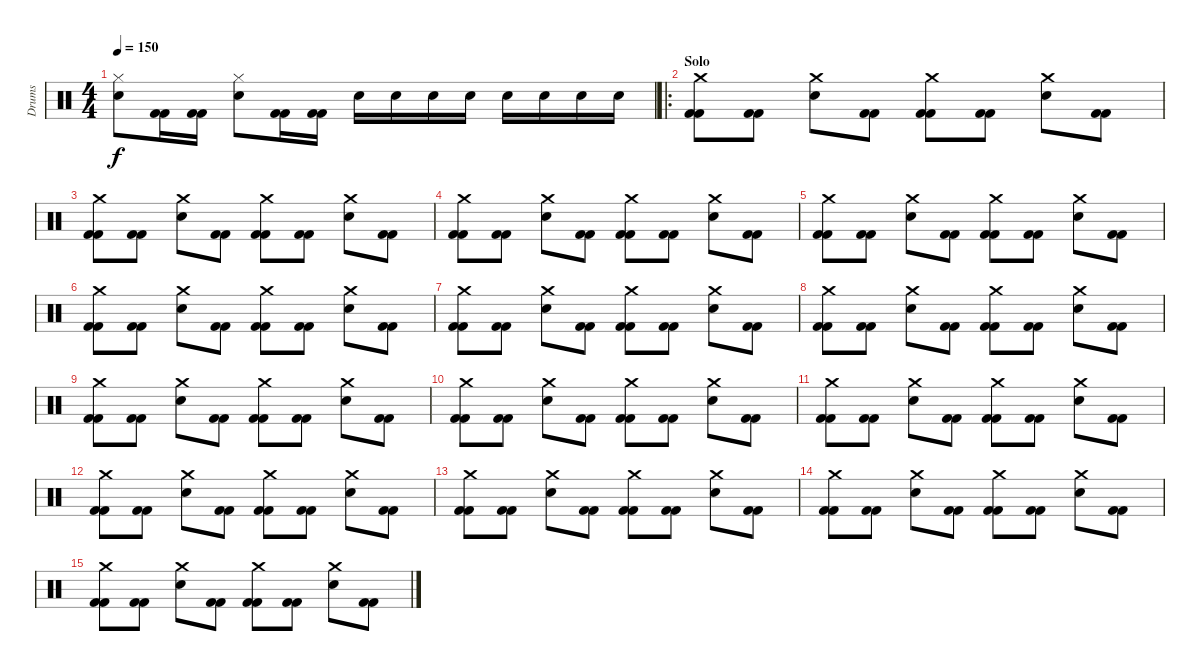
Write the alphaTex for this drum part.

\track ("Drums" "Drums") {instrument percussion}
\staff {score}
\articulation defaults
\ts (4 4)
\tempo 150
\clef neutral
\ks c
("Hi-Hat (closed)" "Electric Snare (hit)").8{dy f} ("Kick (hit) 2" "Kick (hit) 2").16 ("Kick (hit) 2" "Kick (hit) 2").16 ("Electric Snare (hit)" "Hi-Hat (closed)").8 ("Kick (hit) 2" "Kick (hit) 2").16 ("Kick (hit) 2" "Kick (hit) 2").16 "Electric Snare (hit)".16 "Electric Snare (hit)".16 "Electric Snare (hit)".16 "Electric Snare (hit)".16 "Electric Snare (hit)".16 "Electric Snare (hit)".16 "Electric Snare (hit)".16 "Electric Snare (hit)".16 |
\ro
\section ("" "Solo")
("Crash medium (hit)" "Kick (hit) 2" "Kick (hit) 2").8 ("Kick (hit) 2" "Kick (hit) 2").8 ("Electric Snare (hit)" "Crash medium (hit)").8 ("Kick (hit) 2" "Kick (hit) 2").8 ("Kick (hit) 2" "Crash medium (hit)" "Kick (hit) 2").8 ("Kick (hit) 2" "Kick (hit) 2").8 ("Crash medium (hit)" "Electric Snare (hit)").8 ("Kick (hit) 2" "Kick (hit) 2").8 |
("Crash medium (hit)" "Kick (hit) 2" "Kick (hit) 2").8 ("Kick (hit) 2" "Kick (hit) 2").8 ("Electric Snare (hit)" "Crash medium (hit)").8 ("Kick (hit) 2" "Kick (hit) 2").8 ("Kick (hit) 2" "Crash medium (hit)" "Kick (hit) 2").8 ("Kick (hit) 2" "Kick (hit) 2").8 ("Crash medium (hit)" "Electric Snare (hit)").8 ("Kick (hit) 2" "Kick (hit) 2").8 |
("Crash medium (hit)" "Kick (hit) 2" "Kick (hit) 2").8 ("Kick (hit) 2" "Kick (hit) 2").8 ("Electric Snare (hit)" "Crash medium (hit)").8 ("Kick (hit) 2" "Kick (hit) 2").8 ("Kick (hit) 2" "Crash medium (hit)" "Kick (hit) 2").8 ("Kick (hit) 2" "Kick (hit) 2").8 ("Crash medium (hit)" "Electric Snare (hit)").8 ("Kick (hit) 2" "Kick (hit) 2").8 |
("Crash medium (hit)" "Kick (hit) 2" "Kick (hit) 2").8 ("Kick (hit) 2" "Kick (hit) 2").8 ("Electric Snare (hit)" "Crash medium (hit)").8 ("Kick (hit) 2" "Kick (hit) 2").8 ("Kick (hit) 2" "Crash medium (hit)" "Kick (hit) 2").8 ("Kick (hit) 2" "Kick (hit) 2").8 ("Crash medium (hit)" "Electric Snare (hit)").8 ("Kick (hit) 2" "Kick (hit) 2").8 |
("Crash medium (hit)" "Kick (hit) 2" "Kick (hit) 2").8 ("Kick (hit) 2" "Kick (hit) 2").8 ("Electric Snare (hit)" "Crash medium (hit)").8 ("Kick (hit) 2" "Kick (hit) 2").8 ("Kick (hit) 2" "Crash medium (hit)" "Kick (hit) 2").8 ("Kick (hit) 2" "Kick (hit) 2").8 ("Crash medium (hit)" "Electric Snare (hit)").8 ("Kick (hit) 2" "Kick (hit) 2").8 |
("Crash medium (hit)" "Kick (hit) 2" "Kick (hit) 2").8 ("Kick (hit) 2" "Kick (hit) 2").8 ("Electric Snare (hit)" "Crash medium (hit)").8 ("Kick (hit) 2" "Kick (hit) 2").8 ("Kick (hit) 2" "Crash medium (hit)" "Kick (hit) 2").8 ("Kick (hit) 2" "Kick (hit) 2").8 ("Crash medium (hit)" "Electric Snare (hit)").8 ("Kick (hit) 2" "Kick (hit) 2").8 |
("Crash medium (hit)" "Kick (hit) 2" "Kick (hit) 2").8 ("Kick (hit) 2" "Kick (hit) 2").8 ("Electric Snare (hit)" "Crash medium (hit)").8 ("Kick (hit) 2" "Kick (hit) 2").8 ("Kick (hit) 2" "Crash medium (hit)" "Kick (hit) 2").8 ("Kick (hit) 2" "Kick (hit) 2").8 ("Crash medium (hit)" "Electric Snare (hit)").8 ("Kick (hit) 2" "Kick (hit) 2").8 |
("Crash medium (hit)" "Kick (hit) 2" "Kick (hit) 2").8 ("Kick (hit) 2" "Kick (hit) 2").8 ("Electric Snare (hit)" "Crash medium (hit)").8 ("Kick (hit) 2" "Kick (hit) 2").8 ("Kick (hit) 2" "Crash medium (hit)" "Kick (hit) 2").8 ("Kick (hit) 2" "Kick (hit) 2").8 ("Crash medium (hit)" "Electric Snare (hit)").8 ("Kick (hit) 2" "Kick (hit) 2").8 |
("Crash medium (hit)" "Kick (hit) 2" "Kick (hit) 2").8 ("Kick (hit) 2" "Kick (hit) 2").8 ("Electric Snare (hit)" "Crash medium (hit)").8 ("Kick (hit) 2" "Kick (hit) 2").8 ("Kick (hit) 2" "Crash medium (hit)" "Kick (hit) 2").8 ("Kick (hit) 2" "Kick (hit) 2").8 ("Crash medium (hit)" "Electric Snare (hit)").8 ("Kick (hit) 2" "Kick (hit) 2").8 |
("Crash medium (hit)" "Kick (hit) 2" "Kick (hit) 2").8 ("Kick (hit) 2" "Kick (hit) 2").8 ("Electric Snare (hit)" "Crash medium (hit)").8 ("Kick (hit) 2" "Kick (hit) 2").8 ("Kick (hit) 2" "Crash medium (hit)" "Kick (hit) 2").8 ("Kick (hit) 2" "Kick (hit) 2").8 ("Crash medium (hit)" "Electric Snare (hit)").8 ("Kick (hit) 2" "Kick (hit) 2").8 |
("Crash medium (hit)" "Kick (hit) 2" "Kick (hit) 2").8 ("Kick (hit) 2" "Kick (hit) 2").8 ("Electric Snare (hit)" "Crash medium (hit)").8 ("Kick (hit) 2" "Kick (hit) 2").8 ("Kick (hit) 2" "Crash medium (hit)" "Kick (hit) 2").8 ("Kick (hit) 2" "Kick (hit) 2").8 ("Crash medium (hit)" "Electric Snare (hit)").8 ("Kick (hit) 2" "Kick (hit) 2").8 |
("Crash medium (hit)" "Kick (hit) 2" "Kick (hit) 2").8 ("Kick (hit) 2" "Kick (hit) 2").8 ("Electric Snare (hit)" "Crash medium (hit)").8 ("Kick (hit) 2" "Kick (hit) 2").8 ("Kick (hit) 2" "Crash medium (hit)" "Kick (hit) 2").8 ("Kick (hit) 2" "Kick (hit) 2").8 ("Crash medium (hit)" "Electric Snare (hit)").8 ("Kick (hit) 2" "Kick (hit) 2").8 |
("Crash medium (hit)" "Kick (hit) 2" "Kick (hit) 2").8 ("Kick (hit) 2" "Kick (hit) 2").8 ("Electric Snare (hit)" "Crash medium (hit)").8 ("Kick (hit) 2" "Kick (hit) 2").8 ("Kick (hit) 2" "Crash medium (hit)" "Kick (hit) 2").8 ("Kick (hit) 2" "Kick (hit) 2").8 ("Crash medium (hit)" "Electric Snare (hit)").8 ("Kick (hit) 2" "Kick (hit) 2").8 |
("Crash medium (hit)" "Kick (hit) 2" "Kick (hit) 2").8 ("Kick (hit) 2" "Kick (hit) 2").8 ("Electric Snare (hit)" "Crash medium (hit)").8 ("Kick (hit) 2" "Kick (hit) 2").8 ("Kick (hit) 2" "Crash medium (hit)" "Kick (hit) 2").8 ("Kick (hit) 2" "Kick (hit) 2").8 ("Crash medium (hit)" "Electric Snare (hit)").8 ("Kick (hit) 2" "Kick (hit) 2").8
